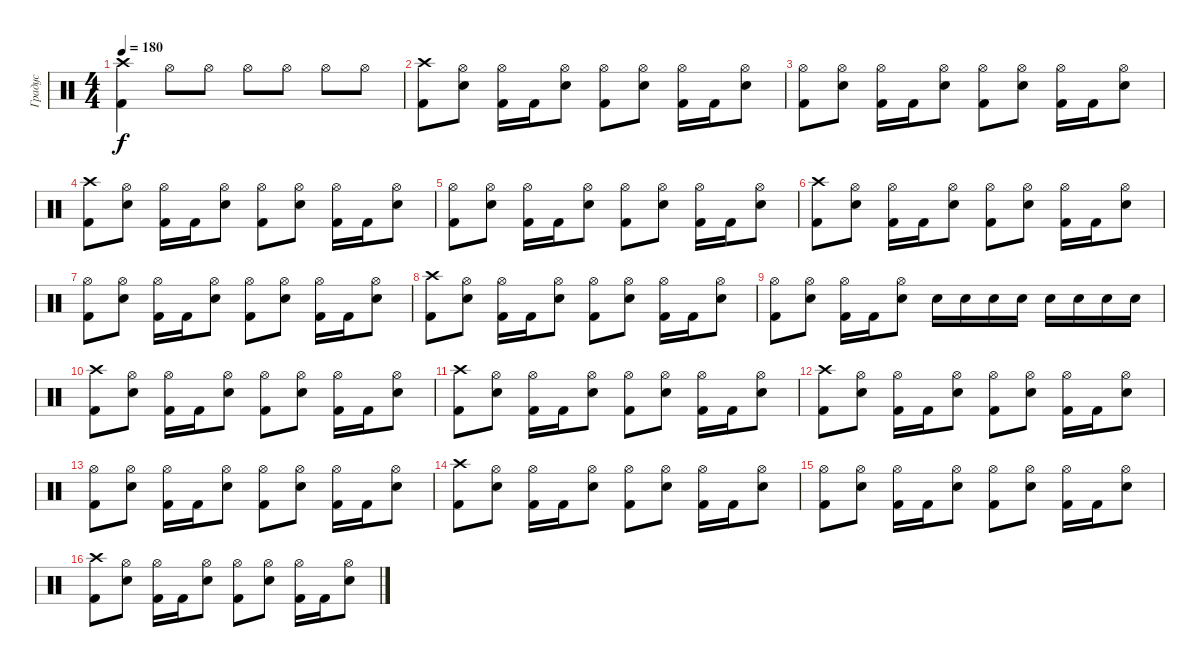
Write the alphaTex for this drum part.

\track ("Градус" "Градус") {instrument percussion}
\staff {score}
\articulation defaults
\ts (4 4)
\tempo 180
\clef neutral
\ks c
("Kick (hit) 2" "Crash high (hit)").4{dy f} "Hi-Hat (open)".8 "Hi-Hat (open)".8 "Hi-Hat (open)".8 "Hi-Hat (open)".8 "Hi-Hat (open)".8 "Hi-Hat (open)".8 |
("Kick (hit) 2" "Crash high (hit)").8 ("Electric Snare (hit)" "Hi-Hat (open)").8 ("Kick (hit) 2" "Hi-Hat (open)").16 "Kick (hit) 2".16 ("Electric Snare (hit)" "Hi-Hat (open)").8 ("Kick (hit) 2" "Hi-Hat (open)").8 ("Electric Snare (hit)" "Hi-Hat (open)").8 ("Kick (hit) 2" "Hi-Hat (open)").16 "Kick (hit) 2".16 ("Electric Snare (hit)" "Hi-Hat (open)").8 |
("Kick (hit) 2" "Hi-Hat (open)").8 ("Electric Snare (hit)" "Hi-Hat (open)").8 ("Kick (hit) 2" "Hi-Hat (open)").16 "Kick (hit) 2".16 ("Electric Snare (hit)" "Hi-Hat (open)").8 ("Kick (hit) 2" "Hi-Hat (open)").8 ("Electric Snare (hit)" "Hi-Hat (open)").8 ("Kick (hit) 2" "Hi-Hat (open)").16 "Kick (hit) 2".16 ("Electric Snare (hit)" "Hi-Hat (open)").8 |
("Kick (hit) 2" "Crash high (hit)").8 ("Electric Snare (hit)" "Hi-Hat (open)").8 ("Kick (hit) 2" "Hi-Hat (open)").16 "Kick (hit) 2".16 ("Electric Snare (hit)" "Hi-Hat (open)").8 ("Kick (hit) 2" "Hi-Hat (open)").8 ("Electric Snare (hit)" "Hi-Hat (open)").8 ("Kick (hit) 2" "Hi-Hat (open)").16 "Kick (hit) 2".16 ("Electric Snare (hit)" "Hi-Hat (open)").8 |
("Kick (hit) 2" "Hi-Hat (open)").8 ("Electric Snare (hit)" "Hi-Hat (open)").8 ("Kick (hit) 2" "Hi-Hat (open)").16 "Kick (hit) 2".16 ("Electric Snare (hit)" "Hi-Hat (open)").8 ("Kick (hit) 2" "Hi-Hat (open)").8 ("Electric Snare (hit)" "Hi-Hat (open)").8 ("Kick (hit) 2" "Hi-Hat (open)").16 "Kick (hit) 2".16 ("Electric Snare (hit)" "Hi-Hat (open)").8 |
("Kick (hit) 2" "Crash high (hit)").8 ("Electric Snare (hit)" "Hi-Hat (open)").8 ("Kick (hit) 2" "Hi-Hat (open)").16 "Kick (hit) 2".16 ("Electric Snare (hit)" "Hi-Hat (open)").8 ("Kick (hit) 2" "Hi-Hat (open)").8 ("Electric Snare (hit)" "Hi-Hat (open)").8 ("Kick (hit) 2" "Hi-Hat (open)").16 "Kick (hit) 2".16 ("Electric Snare (hit)" "Hi-Hat (open)").8 |
("Kick (hit) 2" "Hi-Hat (open)").8 ("Electric Snare (hit)" "Hi-Hat (open)").8 ("Kick (hit) 2" "Hi-Hat (open)").16 "Kick (hit) 2".16 ("Electric Snare (hit)" "Hi-Hat (open)").8 ("Kick (hit) 2" "Hi-Hat (open)").8 ("Electric Snare (hit)" "Hi-Hat (open)").8 ("Kick (hit) 2" "Hi-Hat (open)").16 "Kick (hit) 2".16 ("Electric Snare (hit)" "Hi-Hat (open)").8 |
("Kick (hit) 2" "Crash high (hit)").8 ("Electric Snare (hit)" "Hi-Hat (open)").8 ("Kick (hit) 2" "Hi-Hat (open)").16 "Kick (hit) 2".16 ("Electric Snare (hit)" "Hi-Hat (open)").8 ("Kick (hit) 2" "Hi-Hat (open)").8 ("Electric Snare (hit)" "Hi-Hat (open)").8 ("Kick (hit) 2" "Hi-Hat (open)").16 "Kick (hit) 2".16 ("Electric Snare (hit)" "Hi-Hat (open)").8 |
("Kick (hit) 2" "Hi-Hat (open)").8 ("Electric Snare (hit)" "Hi-Hat (open)").8 ("Kick (hit) 2" "Hi-Hat (open)").16 "Kick (hit) 2".16 ("Electric Snare (hit)" "Hi-Hat (open)").8 "Electric Snare (hit)".16 "Electric Snare (hit)".16 "Electric Snare (hit)".16 "Electric Snare (hit)".16 "Electric Snare (hit)".16 "Electric Snare (hit)".16 "Electric Snare (hit)".16 "Electric Snare (hit)".16 |
("Kick (hit) 2" "Crash high (hit)").8 ("Electric Snare (hit)" "Hi-Hat (open)").8 ("Kick (hit) 2" "Hi-Hat (open)").16 "Kick (hit) 2".16 ("Electric Snare (hit)" "Hi-Hat (open)").8 ("Kick (hit) 2" "Hi-Hat (open)").8 ("Electric Snare (hit)" "Hi-Hat (open)").8 ("Kick (hit) 2" "Hi-Hat (open)").16 "Kick (hit) 2".16 ("Electric Snare (hit)" "Hi-Hat (open)").8 |
("Kick (hit) 2" "Crash high (hit)").8 ("Electric Snare (hit)" "Hi-Hat (open)").8 ("Kick (hit) 2" "Hi-Hat (open)").16 "Kick (hit) 2".16 ("Electric Snare (hit)" "Hi-Hat (open)").8 ("Kick (hit) 2" "Hi-Hat (open)").8 ("Electric Snare (hit)" "Hi-Hat (open)").8 ("Kick (hit) 2" "Hi-Hat (open)").16 "Kick (hit) 2".16 ("Electric Snare (hit)" "Hi-Hat (open)").8 |
("Kick (hit) 2" "Crash high (hit)").8 ("Electric Snare (hit)" "Hi-Hat (open)").8 ("Kick (hit) 2" "Hi-Hat (open)").16 "Kick (hit) 2".16 ("Electric Snare (hit)" "Hi-Hat (open)").8 ("Kick (hit) 2" "Hi-Hat (open)").8 ("Electric Snare (hit)" "Hi-Hat (open)").8 ("Kick (hit) 2" "Hi-Hat (open)").16 "Kick (hit) 2".16 ("Electric Snare (hit)" "Hi-Hat (open)").8 |
("Kick (hit) 2" "Hi-Hat (open)").8 ("Electric Snare (hit)" "Hi-Hat (open)").8 ("Kick (hit) 2" "Hi-Hat (open)").16 "Kick (hit) 2".16 ("Electric Snare (hit)" "Hi-Hat (open)").8 ("Kick (hit) 2" "Hi-Hat (open)").8 ("Electric Snare (hit)" "Hi-Hat (open)").8 ("Kick (hit) 2" "Hi-Hat (open)").16 "Kick (hit) 2".16 ("Electric Snare (hit)" "Hi-Hat (open)").8 |
("Kick (hit) 2" "Crash high (hit)").8 ("Electric Snare (hit)" "Hi-Hat (open)").8 ("Kick (hit) 2" "Hi-Hat (open)").16 "Kick (hit) 2".16 ("Electric Snare (hit)" "Hi-Hat (open)").8 ("Kick (hit) 2" "Hi-Hat (open)").8 ("Electric Snare (hit)" "Hi-Hat (open)").8 ("Kick (hit) 2" "Hi-Hat (open)").16 "Kick (hit) 2".16 ("Electric Snare (hit)" "Hi-Hat (open)").8 |
("Kick (hit) 2" "Hi-Hat (open)").8 ("Electric Snare (hit)" "Hi-Hat (open)").8 ("Kick (hit) 2" "Hi-Hat (open)").16 "Kick (hit) 2".16 ("Electric Snare (hit)" "Hi-Hat (open)").8 ("Kick (hit) 2" "Hi-Hat (open)").8 ("Electric Snare (hit)" "Hi-Hat (open)").8 ("Kick (hit) 2" "Hi-Hat (open)").16 "Kick (hit) 2".16 ("Electric Snare (hit)" "Hi-Hat (open)").8 |
("Kick (hit) 2" "Crash high (hit)").8 ("Electric Snare (hit)" "Hi-Hat (open)").8 ("Kick (hit) 2" "Hi-Hat (open)").16 "Kick (hit) 2".16 ("Electric Snare (hit)" "Hi-Hat (open)").8 ("Kick (hit) 2" "Hi-Hat (open)").8 ("Electric Snare (hit)" "Hi-Hat (open)").8 ("Kick (hit) 2" "Hi-Hat (open)").16 "Kick (hit) 2".16 ("Electric Snare (hit)" "Hi-Hat (open)").8
